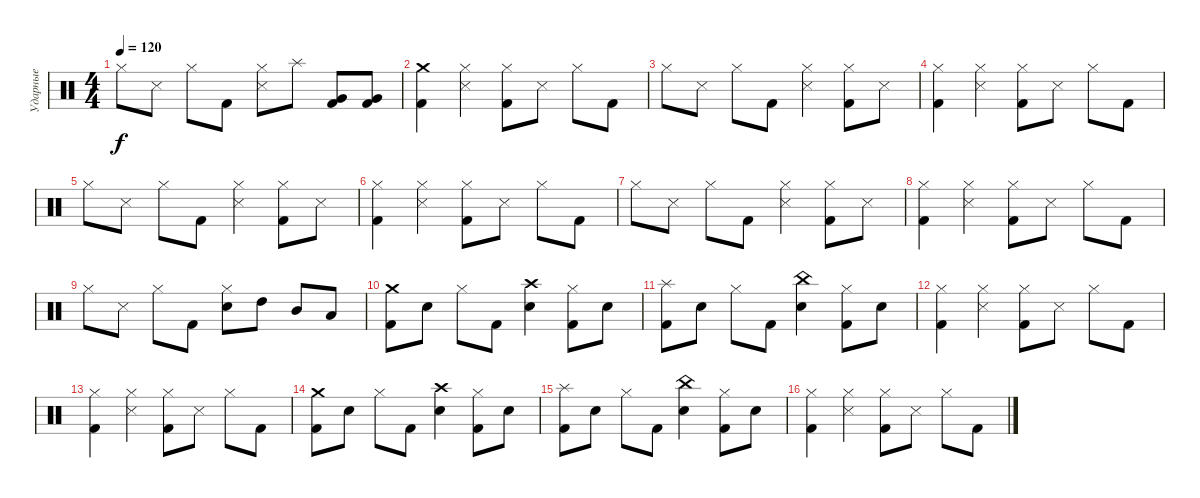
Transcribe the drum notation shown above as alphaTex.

\track ("Ударные" "Ударные") {instrument percussion}
\staff {score}
\articulation defaults
\ts (4 4)
\tempo 120
\clef neutral
\ks c "Hi-Hat (closed)".8{dy f} "Metronome (hit)".8 "Hi-Hat (closed)".8 "Kick (hit) 2".8
("Hi-Hat (closed)" "Metronome (hit)").8 "Splash (hit)".8 ("Very Low Tom (hit)" "Kick (hit) 2").8 ("Very Low Tom (hit)" "Kick (hit) 2").8 |
("Crash medium (hit)" "Kick (hit) 2").4 ("Hi-Hat (closed)" "Metronome (hit)").4 ("Hi-Hat (closed)" "Kick (hit) 2").8 "Metronome (hit)".8 "Hi-Hat (closed)".8 "Kick (hit) 2".8 |
"Hi-Hat (closed)".8 "Metronome (hit)".8 "Hi-Hat (closed)".8 "Kick (hit) 2".8 ("Hi-Hat (closed)" "Metronome (hit)").4 ("Hi-Hat (closed)" "Kick (hit) 2").8 "Metronome (hit)".8 |
("Hi-Hat (closed)" "Kick (hit) 2").4 ("Hi-Hat (closed)" "Metronome (hit)").4 ("Hi-Hat (closed)" "Kick (hit) 2").8 "Metronome (hit)".8 "Hi-Hat (closed)".8 "Kick (hit) 2".8 |
"Hi-Hat (closed)".8 "Metronome (hit)".8 "Hi-Hat (closed)".8 "Kick (hit) 2".8 ("Hi-Hat (closed)" "Metronome (hit)").4 ("Hi-Hat (closed)" "Kick (hit) 2").8 "Metronome (hit)".8 |
("Hi-Hat (closed)" "Kick (hit) 2").4 ("Hi-Hat (closed)" "Metronome (hit)").4 ("Hi-Hat (closed)" "Kick (hit) 2").8 "Metronome (hit)".8 "Hi-Hat (closed)".8 "Kick (hit) 2".8 |
"Hi-Hat (closed)".8 "Metronome (hit)".8 "Hi-Hat (closed)".8 "Kick (hit) 2".8 ("Hi-Hat (closed)" "Metronome (hit)").4 ("Hi-Hat (closed)" "Kick (hit) 2").8 "Metronome (hit)".8 |
("Hi-Hat (closed)" "Kick (hit) 2").4 ("Hi-Hat (closed)" "Metronome (hit)").4 ("Hi-Hat (closed)" "Kick (hit) 2").8 "Metronome (hit)".8 "Hi-Hat (closed)".8 "Kick (hit) 2".8 |
"Hi-Hat (closed)".8 "Metronome (hit)".8 "Hi-Hat (closed)".8 "Kick (hit) 2".8 ("Hi-Hat (closed)" "Electric Snare (hit)").8 "High Tom (hit)".8 "Mid Tom (hit)".8 "Low Tom (hit)".8 |
("Crash medium (hit)" "Kick (hit) 2").8 "Electric Snare (hit)".8 "Hi-Hat (closed)".8 "Kick (hit) 2".8 ("Crash high (hit)" "Electric Snare (hit)").4 ("Hi-Hat (closed)" "Kick (hit) 2").8 "Electric Snare (hit)".8 |
("Splash (hit)" "Kick (hit) 2").8 "Electric Snare (hit)".8 "Hi-Hat (closed)".8 "Kick (hit) 2".8 ("China (hit)" "Electric Snare (hit)").4 ("Hi-Hat (closed)" "Kick (hit) 2").8 "Electric Snare (hit)".8 |
("Hi-Hat (closed)" "Kick (hit) 2").4 ("Hi-Hat (closed)" "Metronome (hit)").4 ("Hi-Hat (closed)" "Kick (hit) 2").8 "Metronome (hit)".8 "Hi-Hat (closed)".8 "Kick (hit) 2".8 |
("Hi-Hat (closed)" "Kick (hit) 2").4 ("Hi-Hat (closed)" "Metronome (hit)").4 ("Hi-Hat (closed)" "Kick (hit) 2").8 "Metronome (hit)".8 "Hi-Hat (closed)".8 "Kick (hit) 2".8 |
("Crash medium (hit)" "Kick (hit) 2").8 "Electric Snare (hit)".8 "Hi-Hat (closed)".8 "Kick (hit) 2".8 ("Crash high (hit)" "Electric Snare (hit)").4 ("Hi-Hat (closed)" "Kick (hit) 2").8 "Electric Snare (hit)".8 |
("Splash (hit)" "Kick (hit) 2").8 "Electric Snare (hit)".8 "Hi-Hat (closed)".8 "Kick (hit) 2".8 ("China (hit)" "Electric Snare (hit)").4 ("Hi-Hat (closed)" "Kick (hit) 2").8 "Electric Snare (hit)".8 |
("Hi-Hat (closed)" "Kick (hit) 2").4 ("Hi-Hat (closed)" "Metronome (hit)").4 ("Hi-Hat (closed)" "Kick (hit) 2").8 "Metronome (hit)".8 "Hi-Hat (closed)".8 "Kick (hit) 2".8
